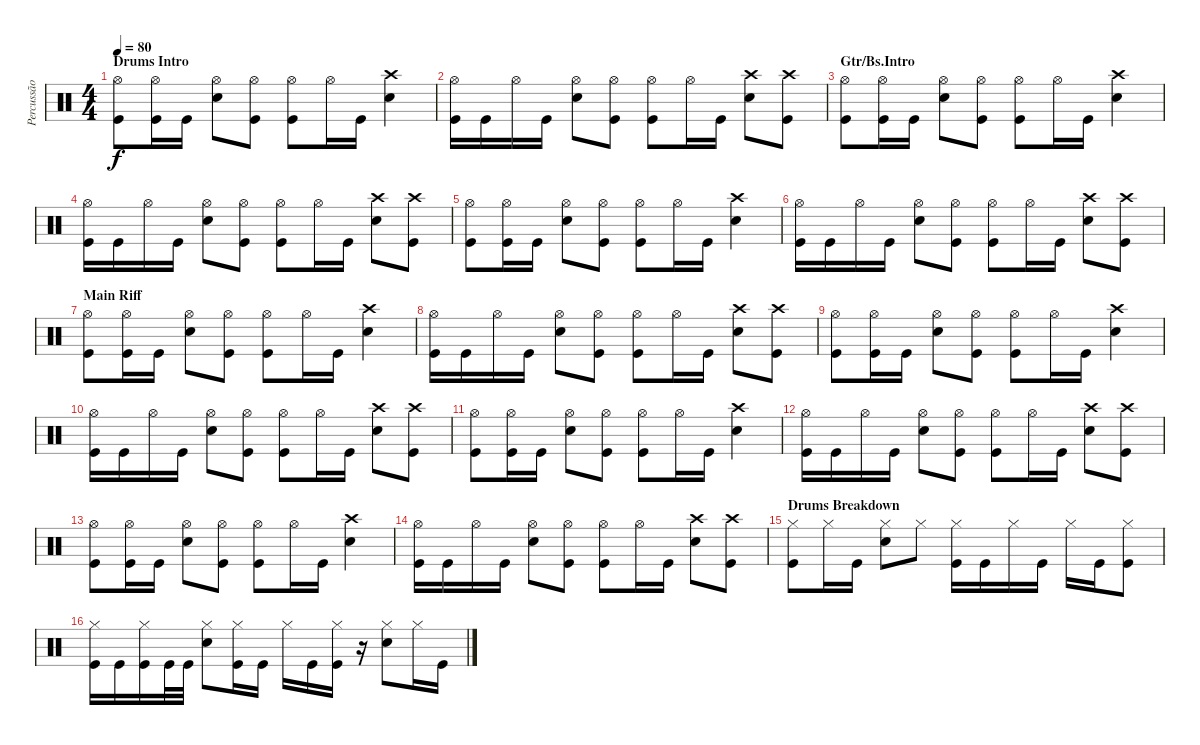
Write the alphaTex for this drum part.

\track ("Percussão" "Percussão") {instrument percussion}
\staff {score}
\articulation defaults
\ts (4 4)
\section ("" "Drums Intro")
\tempo 80
\clef neutral
\ks c
("Hi-Hat (open)" "Kick (hit)").8{dy f} ("Hi-Hat (open)" "Kick (hit)").16 "Kick (hit)".16 ("Hi-Hat (open)" "Snare (hit) 2").8 ("Hi-Hat (open)" "Kick (hit)").8 ("Hi-Hat (open)" "Kick (hit)").8 "Hi-Hat (open)".16 "Kick (hit)".16 ("Crash high (hit)" "Snare (hit) 2").4 |
("Hi-Hat (open)" "Kick (hit)").16 "Kick (hit)".16 "Hi-Hat (open)".16 "Kick (hit)".16 ("Hi-Hat (open)" "Snare (hit) 2").8 ("Hi-Hat (open)" "Kick (hit)").8 ("Hi-Hat (open)" "Kick (hit)").8 "Hi-Hat (open)".16 "Kick (hit)".16 ("Crash high (hit)" "Snare (hit) 2").8 ("Crash high (hit)" "Kick (hit)").8 |
\section ("" "Gtr/Bs.Intro")
("Hi-Hat (open)" "Kick (hit)").8 ("Hi-Hat (open)" "Kick (hit)").16 "Kick (hit)".16 ("Hi-Hat (open)" "Snare (hit) 2").8 ("Hi-Hat (open)" "Kick (hit)").8 ("Hi-Hat (open)" "Kick (hit)").8 "Hi-Hat (open)".16 "Kick (hit)".16 ("Crash high (hit)" "Snare (hit) 2").4 |
("Hi-Hat (open)" "Kick (hit)").16 "Kick (hit)".16 "Hi-Hat (open)".16 "Kick (hit)".16 ("Hi-Hat (open)" "Snare (hit) 2").8 ("Hi-Hat (open)" "Kick (hit)").8 ("Hi-Hat (open)" "Kick (hit)").8 "Hi-Hat (open)".16 "Kick (hit)".16 ("Crash high (hit)" "Snare (hit) 2").8 ("Crash high (hit)" "Kick (hit)").8 |
("Hi-Hat (open)" "Kick (hit)").8 ("Hi-Hat (open)" "Kick (hit)").16 "Kick (hit)".16 ("Hi-Hat (open)" "Snare (hit) 2").8 ("Hi-Hat (open)" "Kick (hit)").8 ("Hi-Hat (open)" "Kick (hit)").8 "Hi-Hat (open)".16 "Kick (hit)".16 ("Crash high (hit)" "Snare (hit) 2").4 |
("Hi-Hat (open)" "Kick (hit)").16 "Kick (hit)".16 "Hi-Hat (open)".16 "Kick (hit)".16 ("Hi-Hat (open)" "Snare (hit) 2").8 ("Hi-Hat (open)" "Kick (hit)").8 ("Hi-Hat (open)" "Kick (hit)").8 "Hi-Hat (open)".16 "Kick (hit)".16 ("Crash high (hit)" "Snare (hit) 2").8 ("Crash high (hit)" "Kick (hit)").8 |
\section ("" "Main Riff")
("Hi-Hat (open)" "Kick (hit)").8 ("Hi-Hat (open)" "Kick (hit)").16 "Kick (hit)".16 ("Hi-Hat (open)" "Snare (hit) 2").8 ("Hi-Hat (open)" "Kick (hit)").8 ("Hi-Hat (open)" "Kick (hit)").8 "Hi-Hat (open)".16 "Kick (hit)".16 ("Crash high (hit)" "Snare (hit) 2").4 |
("Hi-Hat (open)" "Kick (hit)").16 "Kick (hit)".16 "Hi-Hat (open)".16 "Kick (hit)".16 ("Hi-Hat (open)" "Snare (hit) 2").8 ("Hi-Hat (open)" "Kick (hit)").8 ("Hi-Hat (open)" "Kick (hit)").8 "Hi-Hat (open)".16 "Kick (hit)".16 ("Crash high (hit)" "Snare (hit) 2").8 ("Crash high (hit)" "Kick (hit)").8 |
("Hi-Hat (open)" "Kick (hit)").8 ("Hi-Hat (open)" "Kick (hit)").16 "Kick (hit)".16 ("Hi-Hat (open)" "Snare (hit) 2").8 ("Hi-Hat (open)" "Kick (hit)").8 ("Hi-Hat (open)" "Kick (hit)").8 "Hi-Hat (open)".16 "Kick (hit)".16 ("Crash high (hit)" "Snare (hit) 2").4 |
("Hi-Hat (open)" "Kick (hit)").16 "Kick (hit)".16 "Hi-Hat (open)".16 "Kick (hit)".16 ("Hi-Hat (open)" "Snare (hit) 2").8 ("Hi-Hat (open)" "Kick (hit)").8 ("Hi-Hat (open)" "Kick (hit)").8 "Hi-Hat (open)".16 "Kick (hit)".16 ("Crash high (hit)" "Snare (hit) 2").8 ("Crash high (hit)" "Kick (hit)").8 |
("Hi-Hat (open)" "Kick (hit)").8 ("Hi-Hat (open)" "Kick (hit)").16 "Kick (hit)".16 ("Hi-Hat (open)" "Snare (hit) 2").8 ("Hi-Hat (open)" "Kick (hit)").8 ("Hi-Hat (open)" "Kick (hit)").8 "Hi-Hat (open)".16 "Kick (hit)".16 ("Crash high (hit)" "Snare (hit) 2").4 |
("Hi-Hat (open)" "Kick (hit)").16 "Kick (hit)".16 "Hi-Hat (open)".16 "Kick (hit)".16 ("Hi-Hat (open)" "Snare (hit) 2").8 ("Hi-Hat (open)" "Kick (hit)").8 ("Hi-Hat (open)" "Kick (hit)").8 "Hi-Hat (open)".16 "Kick (hit)".16 ("Crash high (hit)" "Snare (hit) 2").8 ("Crash high (hit)" "Kick (hit)").8 |
("Hi-Hat (open)" "Kick (hit)").8 ("Hi-Hat (open)" "Kick (hit)").16 "Kick (hit)".16 ("Hi-Hat (open)" "Snare (hit) 2").8 ("Hi-Hat (open)" "Kick (hit)").8 ("Hi-Hat (open)" "Kick (hit)").8 "Hi-Hat (open)".16 "Kick (hit)".16 ("Crash high (hit)" "Snare (hit) 2").4 |
("Hi-Hat (open)" "Kick (hit)").16 "Kick (hit)".16 "Hi-Hat (open)".16 "Kick (hit)".16 ("Hi-Hat (open)" "Snare (hit) 2").8 ("Hi-Hat (open)" "Kick (hit)").8 ("Hi-Hat (open)" "Kick (hit)").8 "Hi-Hat (open)".16 "Kick (hit)".16 ("Crash high (hit)" "Snare (hit) 2").8 ("Crash high (hit)" "Kick (hit)").8 |
\section ("" "Drums Breakdown")
("Hi-Hat (closed)" "Kick (hit)").8 "Hi-Hat (closed)".16 "Kick (hit)".16 ("Hi-Hat (closed)" "Snare (hit) 2").8 "Hi-Hat (closed)".8 ("Hi-Hat (closed)" "Kick (hit)").16 "Kick (hit)".16 "Hi-Hat (closed)".16 "Kick (hit)".16 "Hi-Hat (closed)".16 "Kick (hit)".16 ("Hi-Hat (closed)" "Kick (hit)").8 |
("Hi-Hat (closed)" "Kick (hit)").16 "Kick (hit)".16 ("Hi-Hat (closed)" "Kick (hit)").16 "Kick (hit)".32 "Kick (hit)".32 ("Hi-Hat (closed)" "Snare (hit) 2").8 ("Hi-Hat (closed)" "Kick (hit)").16 "Kick (hit)".16 "Hi-Hat (closed)".16 "Kick (hit)".16 ("Hi-Hat (closed)" "Kick (hit)").16 r.16 ("Hi-Hat (closed)" "Snare (hit) 2").8 "Hi-Hat (closed)".16 "Kick (hit)".16
